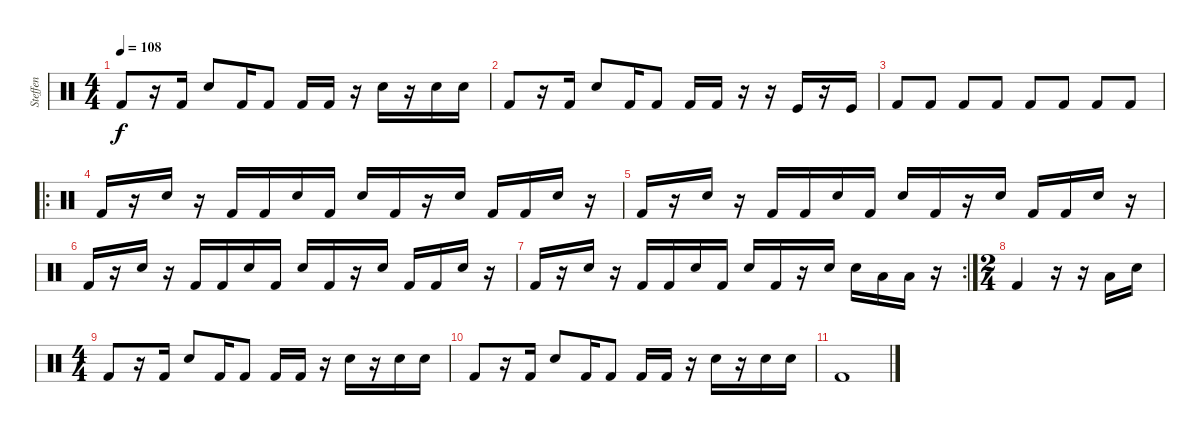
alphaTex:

\track ("Steffen" "Steffen") {instrument percussion}
\staff {score}
\articulation defaults
\ts (4 4)
\tempo 108
\clef neutral
\ks c "Kick (hit) 2".8{dy f}
r.16 "Kick (hit) 2".16 "Snare (hit) 2".8 "Kick (hit) 2".16 "Kick (hit) 2".8 "Kick (hit) 2".16 "Kick (hit) 2".16 r.16 "Snare (hit) 2".16 r.16 "Snare (hit) 2".16 "Snare (hit) 2".16 |
"Kick (hit) 2".8 r.16 "Kick (hit) 2".16 "Snare (hit) 2".8 "Kick (hit) 2".16 "Kick (hit) 2".8 "Kick (hit) 2".16 "Kick (hit) 2".16 r.16 r.16 "Kick (hit)".16 r.16 "Kick (hit)".16 |
"Kick (hit) 2".8 "Kick (hit) 2".8 "Kick (hit) 2".8 "Kick (hit) 2".8 "Kick (hit) 2".8 "Kick (hit) 2".8 "Kick (hit) 2".8 "Kick (hit) 2".8 |
\ro "Kick (hit) 2".16
r.16 "Snare (hit) 2".16 r.16 "Kick (hit) 2".16 "Kick (hit) 2".16 "Snare (hit) 2".16 "Kick (hit) 2".16 "Snare (hit) 2".16 "Kick (hit) 2".16 r.16 "Snare (hit) 2".16 "Kick (hit) 2".16 "Kick (hit) 2".16 "Snare (hit) 2".16 r.16 |
"Kick (hit) 2".16 r.16 "Snare (hit) 2".16 r.16 "Kick (hit) 2".16 "Kick (hit) 2".16 "Snare (hit) 2".16 "Kick (hit) 2".16 "Snare (hit) 2".16 "Kick (hit) 2".16 r.16 "Snare (hit) 2".16 "Kick (hit) 2".16 "Kick (hit) 2".16 "Snare (hit) 2".16 r.16 |
"Kick (hit) 2".16 r.16 "Snare (hit) 2".16 r.16 "Kick (hit) 2".16 "Kick (hit) 2".16 "Snare (hit) 2".16 "Kick (hit) 2".16 "Snare (hit) 2".16 "Kick (hit) 2".16 r.16 "Snare (hit) 2".16 "Kick (hit) 2".16 "Kick (hit) 2".16 "Snare (hit) 2".16 r.16 |
\rc 2 "Kick (hit) 2".16
r.16 "Snare (hit) 2".16 r.16 "Kick (hit) 2".16 "Kick (hit) 2".16 "Snare (hit) 2".16 "Kick (hit) 2".16 "Snare (hit) 2".16 "Kick (hit) 2".16 r.16 "Snare (hit) 2".16 "Snare (hit) 2".16 "Low Tom (hit)".16 "Low Tom (hit)".16 r.16 |
\ts (2 4)
"Kick (hit) 2".4 r.16 r.16 "Low Tom (hit)".16 "Snare (hit) 2".16 |
\ts (4 4)
"Kick (hit) 2".8 r.16 "Kick (hit) 2".16 "Snare (hit) 2".8 "Kick (hit) 2".16 "Kick (hit) 2".8 "Kick (hit) 2".16 "Kick (hit) 2".16 r.16 "Snare (hit) 2".16 r.16 "Snare (hit) 2".16 "Snare (hit) 2".16 |
"Kick (hit) 2".8 r.16 "Kick (hit) 2".16 "Snare (hit) 2".8 "Kick (hit) 2".16 "Kick (hit) 2".8 "Kick (hit) 2".16 "Kick (hit) 2".16 r.16 "Snare (hit) 2".16 r.16 "Snare (hit) 2".16 "Snare (hit) 2".16 |
"Kick (hit) 2".1
